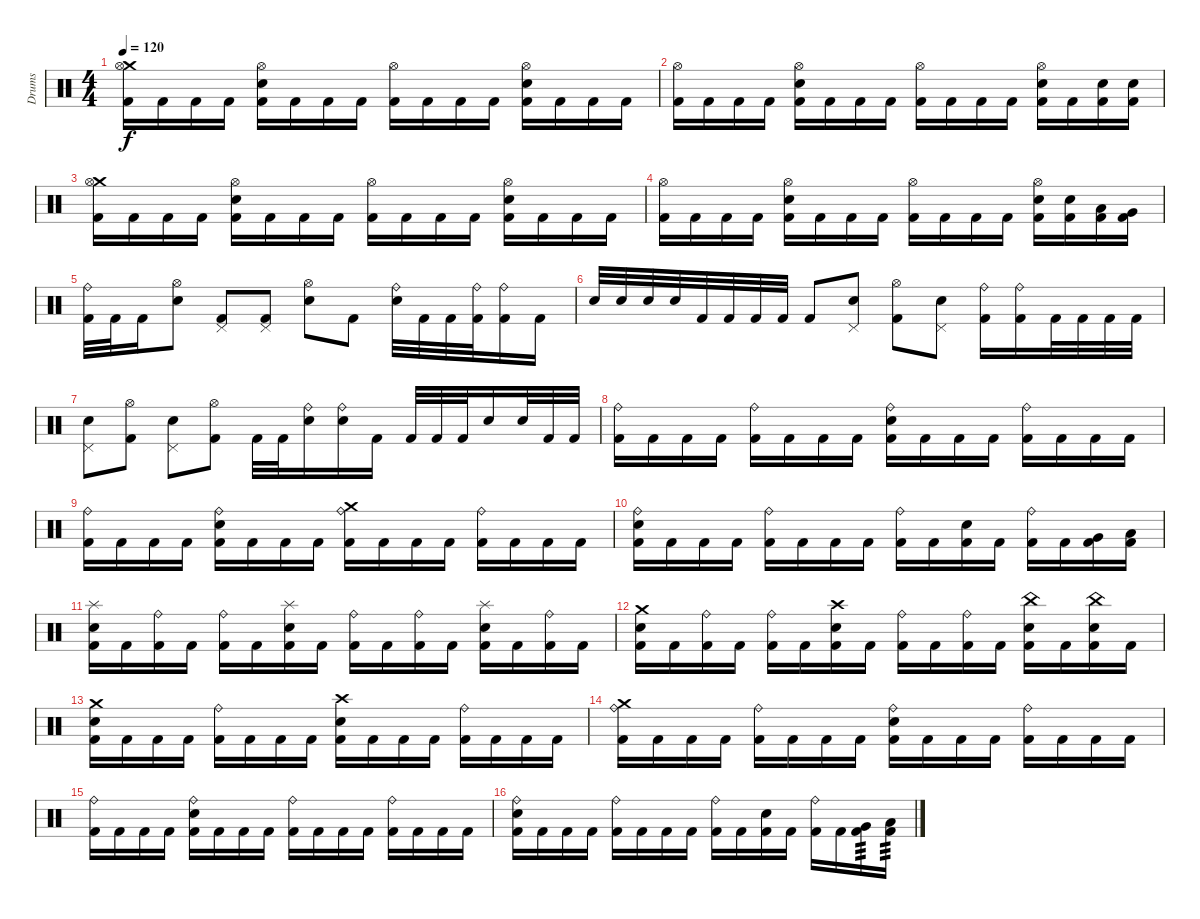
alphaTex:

\track ("Drums" "Drums") {instrument percussion}
\staff {score}
\articulation defaults
\ts (4 4)
\tempo 120
\clef neutral
\ks c
("Crash medium (hit)" "Hi-Hat (open)" "Kick (hit) 2").16{dy f} "Kick (hit) 2".16 "Kick (hit) 2".16 "Kick (hit) 2".16 ("Electric Snare (hit)" "Hi-Hat (open)" "Kick (hit) 2").16 "Kick (hit) 2".16 "Kick (hit) 2".16 "Kick (hit) 2".16 ("Hi-Hat (open)" "Kick (hit) 2").16 "Kick (hit) 2".16 "Kick (hit) 2".16 "Kick (hit) 2".16 ("Hi-Hat (open)" "Electric Snare (hit)" "Kick (hit) 2").16 "Kick (hit) 2".16 "Kick (hit) 2".16 "Kick (hit) 2".16 |
("Hi-Hat (open)" "Kick (hit) 2").16 "Kick (hit) 2".16 "Kick (hit) 2".16 "Kick (hit) 2".16 ("Electric Snare (hit)" "Hi-Hat (open)" "Kick (hit) 2").16 "Kick (hit) 2".16 "Kick (hit) 2".16 "Kick (hit) 2".16 ("Hi-Hat (open)" "Kick (hit) 2").16 "Kick (hit) 2".16 "Kick (hit) 2".16 "Kick (hit) 2".16 ("Hi-Hat (open)" "Electric Snare (hit)" "Kick (hit) 2").16 "Kick (hit) 2".16 ("Electric Snare (hit)" "Kick (hit) 2").16 ("Electric Snare (hit)" "Kick (hit) 2").16 |
("Crash medium (hit)" "Hi-Hat (open)" "Kick (hit) 2").16 "Kick (hit) 2".16 "Kick (hit) 2".16 "Kick (hit) 2".16 ("Electric Snare (hit)" "Hi-Hat (open)" "Kick (hit) 2").16 "Kick (hit) 2".16 "Kick (hit) 2".16 "Kick (hit) 2".16 ("Hi-Hat (open)" "Kick (hit) 2").16 "Kick (hit) 2".16 "Kick (hit) 2".16 "Kick (hit) 2".16 ("Hi-Hat (open)" "Electric Snare (hit)" "Kick (hit) 2").16 "Kick (hit) 2".16 "Kick (hit) 2".16 "Kick (hit) 2".16 |
("Hi-Hat (open)" "Kick (hit) 2").16 "Kick (hit) 2".16 "Kick (hit) 2".16 "Kick (hit) 2".16 ("Electric Snare (hit)" "Hi-Hat (open)" "Kick (hit) 2").16 "Kick (hit) 2".16 "Kick (hit) 2".16 "Kick (hit) 2".16 ("Hi-Hat (open)" "Kick (hit) 2").16 "Kick (hit) 2".16 "Kick (hit) 2".16 "Kick (hit) 2".16 ("Hi-Hat (open)" "Electric Snare (hit)" "Kick (hit) 2").16 ("Electric Snare (hit)" "Kick (hit) 2").16 ("Low Tom (hit)" "Kick (hit) 2").16 ("Very Low Tom (hit)" "Kick (hit) 2").16 |
("Ride (bell)" "Kick (hit) 2").32 "Kick (hit) 2".32 "Kick (hit) 2".16 ("Hi-Hat (open)" "Electric Snare (hit)").8 ("Pedal Hi-Hat (hit)" "Kick (hit) 2").8 ("Pedal Hi-Hat (hit)" "Kick (hit) 2").8 ("Hi-Hat (open)" "Electric Snare (hit)").8 "Kick (hit) 2".8 ("Ride (bell)" "Electric Snare (hit)").32 "Kick (hit) 2".32 "Kick (hit) 2".32 ("Ride (bell)" "Kick (hit) 2").32 ("Ride (bell)" "Kick (hit) 2").16 "Kick (hit) 2".16 |
"Electric Snare (hit)".32 "Electric Snare (hit)".32 "Electric Snare (hit)".32 "Electric Snare (hit)".32 "Kick (hit) 2".32 "Kick (hit) 2".32 "Kick (hit) 2".32 "Kick (hit) 2".32 "Kick (hit) 2".8 ("Pedal Hi-Hat (hit)" "Electric Snare (hit)").8 ("Hi-Hat (open)" "Kick (hit) 2").8 ("Pedal Hi-Hat (hit)" "Electric Snare (hit)").8 ("Ride (bell)" "Kick (hit) 2").16 ("Ride (bell)" "Kick (hit) 2").16 "Kick (hit) 2".32 "Kick (hit) 2".32 "Kick (hit) 2".32 "Kick (hit) 2".32 |
("Pedal Hi-Hat (hit)" "Electric Snare (hit)").8 ("Hi-Hat (open)" "Kick (hit) 2").8 ("Pedal Hi-Hat (hit)" "Electric Snare (hit)").8 ("Hi-Hat (open)" "Kick (hit) 2").8 "Kick (hit) 2".32 "Kick (hit) 2".32 ("Ride (bell)" "Electric Snare (hit)").16 ("Ride (bell)" "Electric Snare (hit)").16 "Kick (hit) 2".16 "Kick (hit) 2".32 "Kick (hit) 2".32 "Kick (hit) 2".32 "Electric Snare (hit)".16 "Electric Snare (hit)".32 "Kick (hit) 2".32 "Kick (hit) 2".32 |
("Ride (bell)" "Kick (hit) 2").16 "Kick (hit) 2".16 "Kick (hit) 2".16 "Kick (hit) 2".16 ("Ride (bell)" "Kick (hit) 2").16 "Kick (hit) 2".16 "Kick (hit) 2".16 "Kick (hit) 2".16 ("Electric Snare (hit)" "Ride (bell)" "Kick (hit) 2").16 "Kick (hit) 2".16 "Kick (hit) 2".16 "Kick (hit) 2".16 ("Ride (bell)" "Kick (hit) 2").16 "Kick (hit) 2".16 "Kick (hit) 2".16 "Kick (hit) 2".16 |
("Ride (bell)" "Kick (hit) 2").16 "Kick (hit) 2".16 "Kick (hit) 2".16 "Kick (hit) 2".16 ("Electric Snare (hit)" "Ride (bell)" "Kick (hit) 2").16 "Kick (hit) 2".16 "Kick (hit) 2".16 "Kick (hit) 2".16 ("Crash medium (hit)" "Ride (bell)" "Kick (hit) 2").16 "Kick (hit) 2".16 "Kick (hit) 2".16 "Kick (hit) 2".16 ("Ride (bell)" "Kick (hit) 2").16 "Kick (hit) 2".16 "Kick (hit) 2".16 "Kick (hit) 2".16 |
("Electric Snare (hit)" "Ride (bell)" "Kick (hit) 2").16 "Kick (hit) 2".16 "Kick (hit) 2".16 "Kick (hit) 2".16 ("Ride (bell)" "Kick (hit) 2").16 "Kick (hit) 2".16 "Kick (hit) 2".16 "Kick (hit) 2".16 ("Ride (bell)" "Kick (hit) 2").16 "Kick (hit) 2".16 ("Electric Snare (hit)" "Kick (hit) 2").16 "Kick (hit) 2".16 ("Ride (bell)" "Kick (hit) 2").16 "Kick (hit) 2".16 ("Very Low Tom (hit)" "Kick (hit) 2").16 ("Low Floor Tom (hit)" "Kick (hit) 2").16 |
("Splash (hit)" "Electric Snare (hit)" "Kick (hit) 2").16 "Kick (hit) 2".16 ("Ride (bell)" "Kick (hit) 2").16 "Kick (hit) 2".16 ("Ride (bell)" "Kick (hit) 2").16 "Kick (hit) 2".16 ("Splash (hit)" "Electric Snare (hit)" "Kick (hit) 2").16 "Kick (hit) 2".16 ("Ride (bell)" "Kick (hit) 2").16 "Kick (hit) 2".16 ("Ride (bell)" "Kick (hit) 2").16 "Kick (hit) 2".16 ("Splash (hit)" "Electric Snare (hit)" "Kick (hit) 2").16 "Kick (hit) 2".16 ("Ride (bell)" "Kick (hit) 2").16 "Kick (hit) 2".16 |
("Crash medium (hit)" "Electric Snare (hit)" "Kick (hit) 2").16 "Kick (hit) 2".16 ("Ride (bell)" "Kick (hit) 2").16 "Kick (hit) 2".16 ("Ride (bell)" "Kick (hit) 2").16 "Kick (hit) 2".16 ("Crash high (hit)" "Electric Snare (hit)" "Kick (hit) 2").16 "Kick (hit) 2".16 ("Ride (bell)" "Kick (hit) 2").16 "Kick (hit) 2".16 ("Ride (bell)" "Kick (hit) 2").16 "Kick (hit) 2".16 ("China (hit)" "Electric Snare (hit)" "Kick (hit) 2").16 "Kick (hit) 2".16 ("China (hit)" "Electric Snare (hit)" "Kick (hit) 2").16 "Kick (hit) 2".16 |
("Crash medium (hit)" "Electric Snare (hit)" "Kick (hit) 2").16 "Kick (hit) 2".16 "Kick (hit) 2".16 "Kick (hit) 2".16 ("Ride (bell)" "Kick (hit) 2").16 "Kick (hit) 2".16 "Kick (hit) 2".16 "Kick (hit) 2".16 ("Electric Snare (hit)" "Crash high (hit)" "Kick (hit) 2").16 "Kick (hit) 2".16 "Kick (hit) 2".16 "Kick (hit) 2".16 ("Ride (bell)" "Kick (hit) 2").16 "Kick (hit) 2".16 "Kick (hit) 2".16 "Kick (hit) 2".16 |
("Crash medium (hit)" "Ride (bell)" "Kick (hit) 2").16 "Kick (hit) 2".16 "Kick (hit) 2".16 "Kick (hit) 2".16 ("Ride (bell)" "Kick (hit) 2").16 "Kick (hit) 2".16 "Kick (hit) 2".16 "Kick (hit) 2".16 ("Electric Snare (hit)" "Ride (bell)" "Kick (hit) 2").16 "Kick (hit) 2".16 "Kick (hit) 2".16 "Kick (hit) 2".16 ("Ride (bell)" "Kick (hit) 2").16 "Kick (hit) 2".16 "Kick (hit) 2".16 "Kick (hit) 2".16 |
("Ride (bell)" "Kick (hit) 2").16 "Kick (hit) 2".16 "Kick (hit) 2".16 "Kick (hit) 2".16 ("Electric Snare (hit)" "Ride (bell)" "Kick (hit) 2").16 "Kick (hit) 2".16 "Kick (hit) 2".16 "Kick (hit) 2".16 ("Ride (bell)" "Kick (hit) 2").16 "Kick (hit) 2".16 "Kick (hit) 2".16 "Kick (hit) 2".16 ("Ride (bell)" "Kick (hit) 2").16 "Kick (hit) 2".16 "Kick (hit) 2".16 "Kick (hit) 2".16 |
("Electric Snare (hit)" "Ride (bell)" "Kick (hit) 2").16 "Kick (hit) 2".16 "Kick (hit) 2".16 "Kick (hit) 2".16 ("Ride (bell)" "Kick (hit) 2").16 "Kick (hit) 2".16 "Kick (hit) 2".16 "Kick (hit) 2".16 ("Ride (bell)" "Kick (hit) 2").16 "Kick (hit) 2".16 ("Electric Snare (hit)" "Kick (hit) 2").16 "Kick (hit) 2".16 ("Ride (bell)" "Kick (hit) 2").16 "Kick (hit) 2".16 ("Very Low Tom (hit)" "Kick (hit) 2").16{tp 3} ("Low Floor Tom (hit)" "Kick (hit) 2").16{tp 3}
